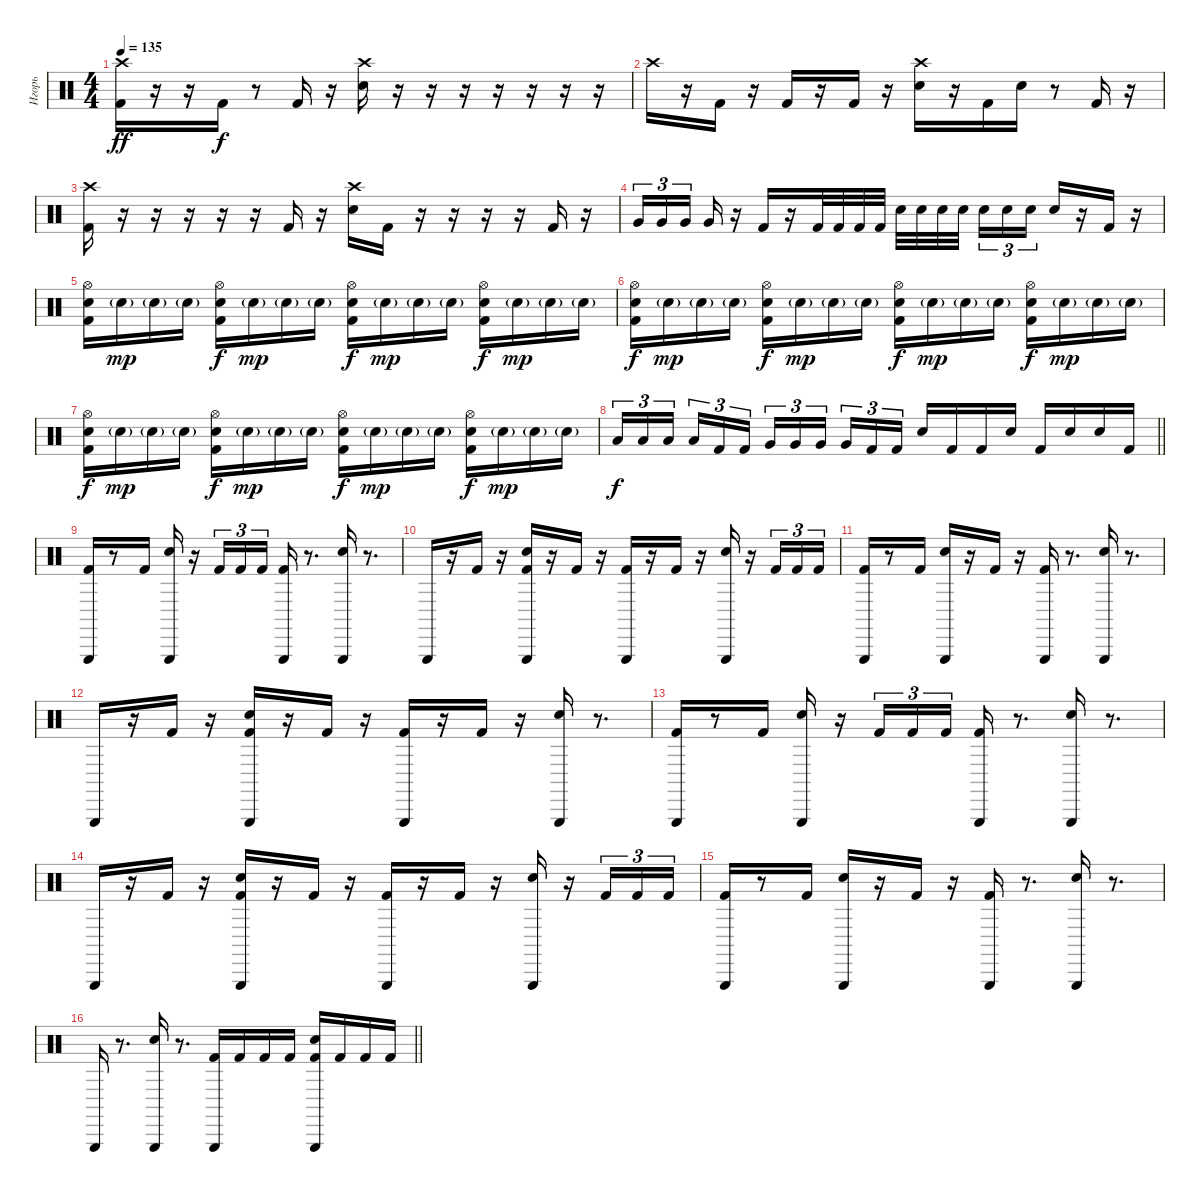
\track ("Игорь" "Игорь") {instrument percussion}
\staff {score}
\articulation defaults
\ts (4 4)
\tempo 135
\clef neutral
\ks c
("Crash high (hit)" "Kick (hit) 2").16{dy ff} r.16 r.16 "Kick (hit) 2".16{dy f} r.8 "Kick (hit) 2".16 r.16 ("Crash high (hit)" "Electric Snare (hit)").16 r.16 r.16 r.16 r.16 r.16 r.16 r.16 |
"Crash high (hit)".16 r.16 "Kick (hit) 2".16 r.16 "Kick (hit) 2".16 r.16 "Kick (hit) 2".16 r.16 ("Crash high (hit)" "Electric Snare (hit)").16 r.16 "Kick (hit) 2".16 "Electric Snare (hit)".16 r.8 "Kick (hit) 2".16 r.16 |
("Crash high (hit)" "Kick (hit) 2").16 r.16 r.16 r.16 r.16 r.16 "Kick (hit) 2".16 r.16 ("Crash high (hit)" "Electric Snare (hit)").16 "Kick (hit) 2".16 r.16 r.16 r.16 r.16 "Kick (hit) 2".16 r.16 |
"Very Low Tom (hit)".16{tu (3 2)} "Very Low Tom (hit)".16{tu (3 2)} "Very Low Tom (hit)".16{tu (3 2) beam splitsecondary} "Very Low Tom (hit)".16 r.16 "Kick (hit) 2".16 r.16 "Kick (hit) 2".32 "Kick (hit) 2".32 "Kick (hit) 2".32 "Kick (hit) 2".32 "Electric Snare (hit)".32 "Electric Snare (hit)".32 "Electric Snare (hit)".32 "Electric Snare (hit)".32{beam splitsecondary} "Electric Snare (hit)".16{tu (3 2)} "Electric Snare (hit)".16{tu (3 2)} "Electric Snare (hit)".16{tu (3 2)} "Electric Snare (hit)".16 r.16 "Kick (hit) 2".16 r.16 |
("Hi-Hat (open)" "Electric Snare (hit)" "Kick (hit) 2").16 "Electric Snare (hit)"{g}.16{dy mp} "Electric Snare (hit)"{g}.16 "Electric Snare (hit)"{g}.16 ("Hi-Hat (open)" "Electric Snare (hit)" "Kick (hit) 2").16{dy f} "Electric Snare (hit)"{g}.16{dy mp} "Electric Snare (hit)"{g}.16 "Electric Snare (hit)"{g}.16 ("Hi-Hat (open)" "Electric Snare (hit)" "Kick (hit) 2").16{dy f} "Electric Snare (hit)"{g}.16{dy mp} "Electric Snare (hit)"{g}.16 "Electric Snare (hit)"{g}.16 ("Hi-Hat (open)" "Electric Snare (hit)" "Kick (hit) 2").16{dy f} "Electric Snare (hit)"{g}.16{dy mp} "Electric Snare (hit)"{g}.16 "Electric Snare (hit)"{g}.16 |
("Hi-Hat (open)" "Electric Snare (hit)" "Kick (hit) 2").16{dy f} "Electric Snare (hit)"{g}.16{dy mp} "Electric Snare (hit)"{g}.16 "Electric Snare (hit)"{g}.16 ("Hi-Hat (open)" "Electric Snare (hit)" "Kick (hit) 2").16{dy f} "Electric Snare (hit)"{g}.16{dy mp} "Electric Snare (hit)"{g}.16 "Electric Snare (hit)"{g}.16 ("Hi-Hat (open)" "Electric Snare (hit)" "Kick (hit) 2").16{dy f} "Electric Snare (hit)"{g}.16{dy mp} "Electric Snare (hit)"{g}.16 "Electric Snare (hit)"{g}.16 ("Hi-Hat (open)" "Electric Snare (hit)" "Kick (hit) 2").16{dy f} "Electric Snare (hit)"{g}.16{dy mp} "Electric Snare (hit)"{g}.16 "Electric Snare (hit)"{g}.16 |
("Hi-Hat (open)" "Electric Snare (hit)" "Kick (hit) 2").16{dy f} "Electric Snare (hit)"{g}.16{dy mp} "Electric Snare (hit)"{g}.16 "Electric Snare (hit)"{g}.16 ("Hi-Hat (open)" "Electric Snare (hit)" "Kick (hit) 2").16{dy f} "Electric Snare (hit)"{g}.16{dy mp} "Electric Snare (hit)"{g}.16 "Electric Snare (hit)"{g}.16 ("Hi-Hat (open)" "Electric Snare (hit)" "Kick (hit) 2").16{dy f} "Electric Snare (hit)"{g}.16{dy mp} "Electric Snare (hit)"{g}.16 "Electric Snare (hit)"{g}.16 ("Hi-Hat (open)" "Electric Snare (hit)" "Kick (hit) 2").16{dy f} "Electric Snare (hit)"{g}.16{dy mp} "Electric Snare (hit)"{g}.16 "Electric Snare (hit)"{g}.16 |
\barLineRight lightlight "Low Tom (hit)".16{tu (3 2) dy f} "Low Tom (hit)".16{tu (3 2)} "Low Tom (hit)".16{tu (3 2) beam splitsecondary} "Low Tom (hit)".16{tu (3 2)} "Kick (hit) 2".16{tu (3 2)} "Kick (hit) 2".16{tu (3 2)} "Very Low Tom (hit)".16{tu (3 2)} "Very Low Tom (hit)".16{tu (3 2)} "Very Low Tom (hit)".16{tu (3 2) beam splitsecondary} "Very Low Tom (hit)".16{tu (3 2)} "Kick (hit) 2".16{tu (3 2)} "Kick (hit) 2".16{tu (3 2)} "Electric Snare (hit)".16 "Kick (hit) 2".16 "Kick (hit) 2".16 "Electric Snare (hit)".16 "Kick (hit) 2".16 "Electric Snare (hit)".16 "Electric Snare (hit)".16 "Kick (hit) 2".16
|
("Kick (hit) 2" "Triangle (hit)").16 r.8 "Kick (hit) 2".16 ("Snare (hit) 2" "Triangle (hit)").16 r.16 "Kick (hit) 2".16{tu (3 2)} "Kick (hit) 2".16{tu (3 2)} "Kick (hit) 2".16{tu (3 2)} ("Kick (hit) 2" "Triangle (hit)").16 r.8{d} ("Snare (hit) 2" "Triangle (hit)").16 r.8{d} |
"Triangle (hit)".16 r.16 "Kick (hit) 2".16 r.16 ("Kick (hit) 2" "Snare (hit) 2" "Triangle (hit)").16 r.16 "Kick (hit) 2".16 r.16 ("Kick (hit) 2" "Triangle (hit)").16 r.16 "Kick (hit) 2".16 r.16 ("Snare (hit) 2" "Triangle (hit)").16 r.16 "Kick (hit) 2".16{tu (3 2)} "Kick (hit) 2".16{tu (3 2)} "Kick (hit) 2".16{tu (3 2)} |
("Kick (hit) 2" "Triangle (hit)").16 r.8 "Kick (hit) 2".16 ("Snare (hit) 2" "Triangle (hit)").16 r.16 "Kick (hit) 2".16 r.16 ("Kick (hit) 2" "Triangle (hit)").16 r.8{d} ("Snare (hit) 2" "Triangle (hit)").16 r.8{d} |
"Triangle (hit)".16 r.16 "Kick (hit) 2".16 r.16 ("Kick (hit) 2" "Snare (hit) 2" "Triangle (hit)").16 r.16 "Kick (hit) 2".16 r.16 ("Kick (hit) 2" "Triangle (hit)").16 r.16 "Kick (hit) 2".16 r.16 ("Snare (hit) 2" "Triangle (hit)").16 r.8{d} |
("Kick (hit) 2" "Triangle (hit)").16 r.8 "Kick (hit) 2".16 ("Snare (hit) 2" "Triangle (hit)").16 r.16 "Kick (hit) 2".16{tu (3 2)} "Kick (hit) 2".16{tu (3 2)} "Kick (hit) 2".16{tu (3 2)} ("Kick (hit) 2" "Triangle (hit)").16 r.8{d} ("Snare (hit) 2" "Triangle (hit)").16 r.8{d} |
"Triangle (hit)".16 r.16 "Kick (hit) 2".16 r.16 ("Kick (hit) 2" "Snare (hit) 2" "Triangle (hit)").16 r.16 "Kick (hit) 2".16 r.16 ("Kick (hit) 2" "Triangle (hit)").16 r.16 "Kick (hit) 2".16 r.16 ("Snare (hit) 2" "Triangle (hit)").16 r.16 "Kick (hit) 2".16{tu (3 2)} "Kick (hit) 2".16{tu (3 2)} "Kick (hit) 2".16{tu (3 2)} |
("Kick (hit) 2" "Triangle (hit)").16 r.8 "Kick (hit) 2".16 ("Snare (hit) 2" "Triangle (hit)").16 r.16 "Kick (hit) 2".16 r.16 ("Kick (hit) 2" "Triangle (hit)").16 r.8{d} ("Snare (hit) 2" "Triangle (hit)").16 r.8{d} |
\barLineRight lightlight "Triangle (hit)".16
r.8{d} ("Snare (hit) 2" "Triangle (hit)").16 r.8{d} ("Kick (hit) 2" "Triangle (hit)").16 "Kick (hit) 2".16 "Kick (hit) 2".16 "Kick (hit) 2".16 ("Kick (hit) 2" "Snare (hit) 2" "Triangle (hit)").16 "Kick (hit) 2".16 "Kick (hit) 2".16 "Kick (hit) 2".16
